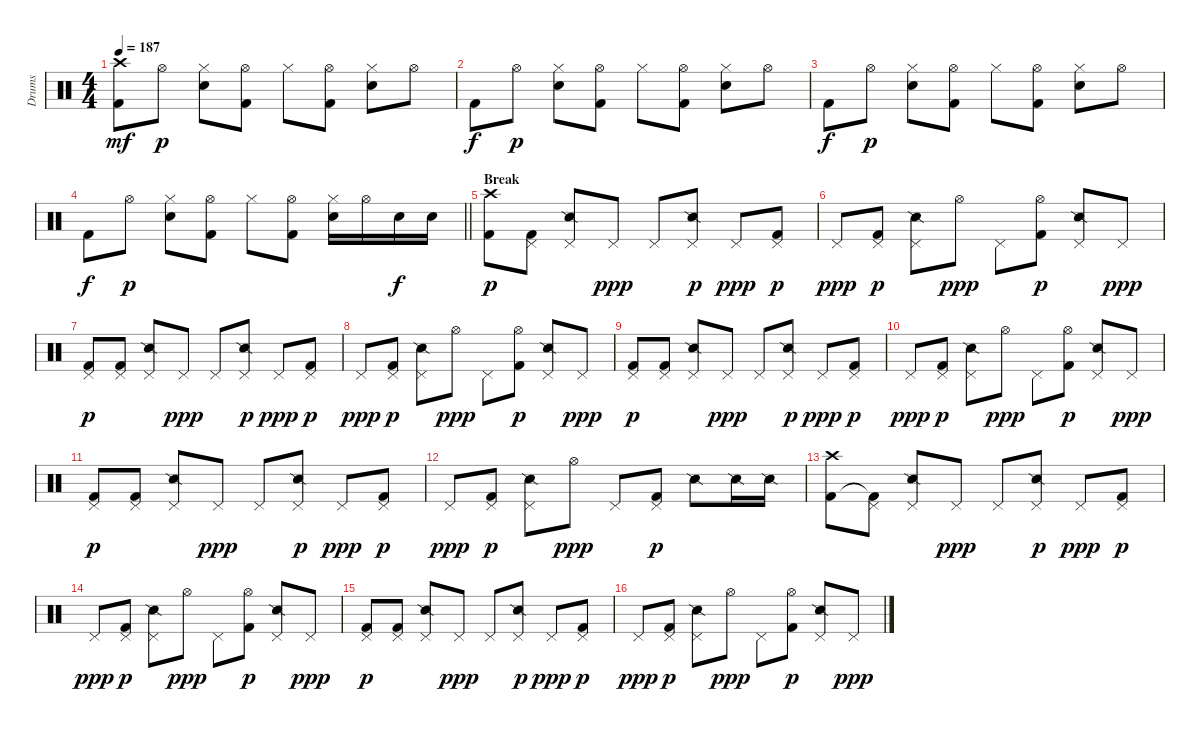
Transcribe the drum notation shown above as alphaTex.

\track ("Drums" "Drums") {instrument percussion}
\staff {score}
\articulation defaults
\ts (4 4)
\tempo 187
\clef neutral
\ks c
("Crash high (hit)" "Kick (hit) 2").8{dy mf} "Hi-Hat (open)".8{dy p} ("Hi-Hat (closed)" "Electric Snare (hit)").8 ("Hi-Hat (open)" "Kick (hit) 2").8 "Hi-Hat (closed)".8 ("Hi-Hat (open)" "Kick (hit) 2").8 ("Hi-Hat (closed)" "Electric Snare (hit)").8 "Hi-Hat (open)".8 |
"Kick (hit) 2".8{dy f} "Hi-Hat (open)".8{dy p} ("Hi-Hat (closed)" "Electric Snare (hit)").8 ("Hi-Hat (open)" "Kick (hit) 2").8 "Hi-Hat (closed)".8 ("Hi-Hat (open)" "Kick (hit) 2").8 ("Hi-Hat (closed)" "Electric Snare (hit)").8 "Hi-Hat (open)".8 |
"Kick (hit) 2".8{dy f} "Hi-Hat (open)".8{dy p} ("Hi-Hat (closed)" "Electric Snare (hit)").8 ("Hi-Hat (open)" "Kick (hit) 2").8 "Hi-Hat (closed)".8 ("Hi-Hat (open)" "Kick (hit) 2").8 ("Hi-Hat (closed)" "Electric Snare (hit)").8 "Hi-Hat (open)".8 |
\barLineRight lightlight "Kick (hit) 2".8{dy f} "Hi-Hat (open)".8{dy p}
("Hi-Hat (closed)" "Electric Snare (hit)").8 ("Hi-Hat (open)" "Kick (hit) 2").8 "Hi-Hat (closed)".8 ("Hi-Hat (open)" "Kick (hit) 2").8 ("Hi-Hat (closed)" "Electric Snare (hit)").16 "Hi-Hat (open)".16 "Electric Snare (hit)".16{dy f} "Electric Snare (hit)".16 |
\section ("" "Break")
("Crash high (hit)" "Kick (hit) 2").8{dy p} ("Pedal Hi-Hat (hit)" "Kick (hit) 2").8 ("Pedal Hi-Hat (hit)" "Snare (side stick) 2").8 "Pedal Hi-Hat (hit)".8{dy ppp} "Pedal Hi-Hat (hit)".8 ("Pedal Hi-Hat (hit)" "Snare (side stick) 2").8{dy p} "Pedal Hi-Hat (hit)".8{dy ppp} ("Pedal Hi-Hat (hit)" "Kick (hit) 2").8{dy p} |
"Pedal Hi-Hat (hit)".8{dy ppp} ("Pedal Hi-Hat (hit)" "Kick (hit) 2").8{dy p} ("Pedal Hi-Hat (hit)" "Snare (side stick) 2").8 "Hi-Hat (open)".8{dy ppp} "Pedal Hi-Hat (hit)".8 ("Hi-Hat (open)" "Kick (hit) 2").8{dy p} ("Pedal Hi-Hat (hit)" "Snare (side stick) 2").8 "Pedal Hi-Hat (hit)".8{dy ppp} |
("Pedal Hi-Hat (hit)" "Kick (hit) 2").8{dy p} ("Pedal Hi-Hat (hit)" "Kick (hit) 2").8 ("Pedal Hi-Hat (hit)" "Snare (side stick) 2").8 "Pedal Hi-Hat (hit)".8{dy ppp} "Pedal Hi-Hat (hit)".8 ("Pedal Hi-Hat (hit)" "Snare (side stick) 2").8{dy p} "Pedal Hi-Hat (hit)".8{dy ppp} ("Pedal Hi-Hat (hit)" "Kick (hit) 2").8{dy p} |
"Pedal Hi-Hat (hit)".8{dy ppp} ("Pedal Hi-Hat (hit)" "Kick (hit) 2").8{dy p} ("Pedal Hi-Hat (hit)" "Snare (side stick) 2").8 "Hi-Hat (open)".8{dy ppp} "Pedal Hi-Hat (hit)".8 ("Hi-Hat (open)" "Kick (hit) 2").8{dy p} ("Pedal Hi-Hat (hit)" "Snare (side stick) 2").8 "Pedal Hi-Hat (hit)".8{dy ppp} |
("Pedal Hi-Hat (hit)" "Kick (hit) 2").8{dy p} ("Pedal Hi-Hat (hit)" "Kick (hit) 2").8 ("Pedal Hi-Hat (hit)" "Snare (side stick) 2").8 "Pedal Hi-Hat (hit)".8{dy ppp} "Pedal Hi-Hat (hit)".8 ("Pedal Hi-Hat (hit)" "Snare (side stick) 2").8{dy p} "Pedal Hi-Hat (hit)".8{dy ppp} ("Pedal Hi-Hat (hit)" "Kick (hit) 2").8{dy p} |
"Pedal Hi-Hat (hit)".8{dy ppp} ("Pedal Hi-Hat (hit)" "Kick (hit) 2").8{dy p} ("Pedal Hi-Hat (hit)" "Snare (side stick) 2").8 "Hi-Hat (open)".8{dy ppp} "Pedal Hi-Hat (hit)".8 ("Hi-Hat (open)" "Kick (hit) 2").8{dy p} ("Pedal Hi-Hat (hit)" "Snare (side stick) 2").8 "Pedal Hi-Hat (hit)".8{dy ppp} |
("Pedal Hi-Hat (hit)" "Kick (hit) 2").8{dy p} ("Pedal Hi-Hat (hit)" "Kick (hit) 2").8 ("Pedal Hi-Hat (hit)" "Snare (side stick) 2").8 "Pedal Hi-Hat (hit)".8{dy ppp} "Pedal Hi-Hat (hit)".8 ("Pedal Hi-Hat (hit)" "Snare (side stick) 2").8{dy p} "Pedal Hi-Hat (hit)".8{dy ppp} ("Pedal Hi-Hat (hit)" "Kick (hit) 2").8{dy p} |
"Pedal Hi-Hat (hit)".8{dy ppp} ("Pedal Hi-Hat (hit)" "Kick (hit) 2").8{dy p} ("Pedal Hi-Hat (hit)" "Snare (side stick) 2").8 "Hi-Hat (open)".8{dy ppp} "Pedal Hi-Hat (hit)".8 ("Pedal Hi-Hat (hit)" "Kick (hit) 2").8{dy p} "Snare (side stick) 2".8 "Snare (side stick) 2".16 "Snare (side stick) 2".16 |
("Crash high (hit)" "Kick (hit) 2").8 ("Pedal Hi-Hat (hit)" "Kick (hit) 2"{t}).8 ("Pedal Hi-Hat (hit)" "Snare (side stick) 2").8 "Pedal Hi-Hat (hit)".8{dy ppp} "Pedal Hi-Hat (hit)".8 ("Pedal Hi-Hat (hit)" "Snare (side stick) 2").8{dy p} "Pedal Hi-Hat (hit)".8{dy ppp} ("Pedal Hi-Hat (hit)" "Kick (hit) 2").8{dy p} |
"Pedal Hi-Hat (hit)".8{dy ppp} ("Pedal Hi-Hat (hit)" "Kick (hit) 2").8{dy p} ("Pedal Hi-Hat (hit)" "Snare (side stick) 2").8 "Hi-Hat (open)".8{dy ppp} "Pedal Hi-Hat (hit)".8 ("Hi-Hat (open)" "Kick (hit) 2").8{dy p} ("Pedal Hi-Hat (hit)" "Snare (side stick) 2").8 "Pedal Hi-Hat (hit)".8{dy ppp} |
("Pedal Hi-Hat (hit)" "Kick (hit) 2").8{dy p} ("Pedal Hi-Hat (hit)" "Kick (hit) 2").8 ("Pedal Hi-Hat (hit)" "Snare (side stick) 2").8 "Pedal Hi-Hat (hit)".8{dy ppp} "Pedal Hi-Hat (hit)".8 ("Pedal Hi-Hat (hit)" "Snare (side stick) 2").8{dy p} "Pedal Hi-Hat (hit)".8{dy ppp} ("Pedal Hi-Hat (hit)" "Kick (hit) 2").8{dy p} |
"Pedal Hi-Hat (hit)".8{dy ppp} ("Pedal Hi-Hat (hit)" "Kick (hit) 2").8{dy p} ("Pedal Hi-Hat (hit)" "Snare (side stick) 2").8 "Hi-Hat (open)".8{dy ppp} "Pedal Hi-Hat (hit)".8 ("Hi-Hat (open)" "Kick (hit) 2").8{dy p} ("Pedal Hi-Hat (hit)" "Snare (side stick) 2").8 "Pedal Hi-Hat (hit)".8{dy ppp}
